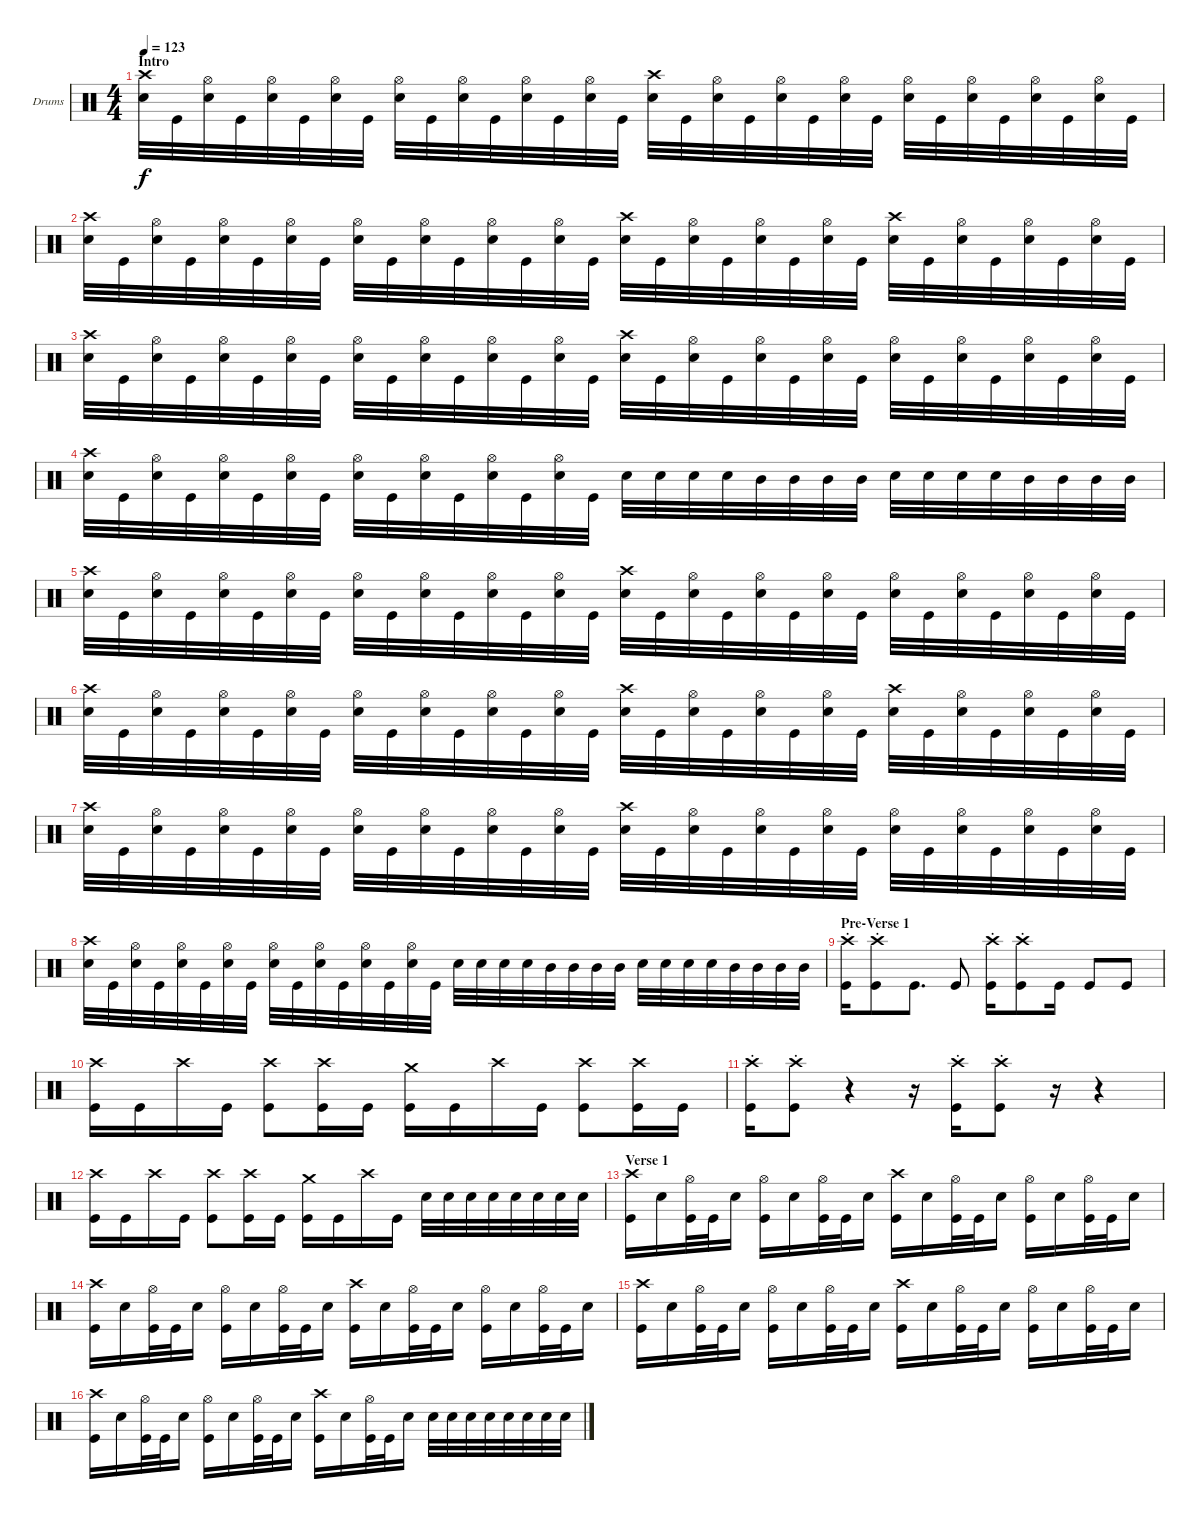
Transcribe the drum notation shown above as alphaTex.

\defaultSystemsLayout 4
\bracketExtendMode groupsimilarinstruments
\firstSystemTrackNameOrientation horizontal
\otherSystemsTrackNameOrientation horizontal
\track ("Drumkit" "Drums") {instrument percussion}
\staff {score}
\articulation defaults
\ts (4 4)
\section ("" "Intro")
\tempo 123
\clef neutral
\scale
0.472222
\ks c
("Snare (hit) 2" "Crash high (hit)").32{dy f} "Kick (hit)".32 ("Snare (hit) 2" "Hi-Hat (open)").32 "Kick (hit)".32 ("Snare (hit) 2" "Hi-Hat (open)").32 "Kick (hit)".32 ("Snare (hit) 2" "Hi-Hat (open)").32 "Kick (hit)".32 ("Snare (hit) 2" "Hi-Hat (open)").32 "Kick (hit)".32 ("Snare (hit) 2" "Hi-Hat (open)").32 "Kick (hit)".32 ("Snare (hit) 2" "Hi-Hat (open)").32 "Kick (hit)".32 ("Snare (hit) 2" "Hi-Hat (open)").32 "Kick (hit)".32 ("Snare (hit) 2" "Crash high (hit)").32 "Kick (hit)".32 ("Snare (hit) 2" "Hi-Hat (open)").32 "Kick (hit)".32 ("Snare (hit) 2" "Hi-Hat (open)").32 "Kick (hit)".32 ("Snare (hit) 2" "Hi-Hat (open)").32 "Kick (hit)".32 ("Snare (hit) 2" "Hi-Hat (open)").32 "Kick (hit)".32 ("Snare (hit) 2" "Hi-Hat (open)").32 "Kick (hit)".32 ("Snare (hit) 2" "Hi-Hat (open)").32 "Kick (hit)".32 ("Snare (hit) 2" "Hi-Hat (open)").32 "Kick (hit)".32 |
\scale
0.263889 ("Snare (hit) 2" "Crash high (hit)").32 "Kick (hit)".32 ("Snare (hit) 2" "Hi-Hat (open)").32 "Kick (hit)".32 ("Snare (hit) 2" "Hi-Hat (open)").32 "Kick (hit)".32 ("Snare (hit) 2" "Hi-Hat (open)").32 "Kick (hit)".32 ("Snare (hit) 2" "Hi-Hat (open)").32 "Kick (hit)".32 ("Snare (hit) 2" "Hi-Hat (open)").32 "Kick (hit)".32 ("Snare (hit) 2" "Hi-Hat (open)").32 "Kick (hit)".32 ("Snare (hit) 2" "Hi-Hat (open)").32 "Kick (hit)".32 ("Snare (hit) 2" "Crash high (hit)").32 "Kick (hit)".32 ("Snare (hit) 2" "Hi-Hat (open)").32 "Kick (hit)".32 ("Snare (hit) 2" "Hi-Hat (open)").32 "Kick (hit)".32 ("Snare (hit) 2" "Hi-Hat (open)").32 "Kick (hit)".32 ("Snare (hit) 2" "Crash high (hit)").32 "Kick (hit)".32 ("Snare (hit) 2" "Hi-Hat (open)").32 "Kick (hit)".32 ("Snare (hit) 2" "Hi-Hat (open)").32 "Kick (hit)".32 ("Snare (hit) 2" "Hi-Hat (open)").32 "Kick (hit)".32 |
\scale
0.263889 ("Snare (hit) 2" "Crash high (hit)").32 "Kick (hit)".32 ("Snare (hit) 2" "Hi-Hat (open)").32 "Kick (hit)".32 ("Snare (hit) 2" "Hi-Hat (open)").32 "Kick (hit)".32 ("Snare (hit) 2" "Hi-Hat (open)").32 "Kick (hit)".32 ("Snare (hit) 2" "Hi-Hat (open)").32 "Kick (hit)".32 ("Snare (hit) 2" "Hi-Hat (open)").32 "Kick (hit)".32 ("Snare (hit) 2" "Hi-Hat (open)").32 "Kick (hit)".32 ("Snare (hit) 2" "Hi-Hat (open)").32 "Kick (hit)".32 ("Snare (hit) 2" "Crash high (hit)").32 "Kick (hit)".32 ("Snare (hit) 2" "Hi-Hat (open)").32 "Kick (hit)".32 ("Snare (hit) 2" "Hi-Hat (open)").32 "Kick (hit)".32 ("Snare (hit) 2" "Hi-Hat (open)").32 "Kick (hit)".32 ("Snare (hit) 2" "Hi-Hat (open)").32 "Kick (hit)".32 ("Snare (hit) 2" "Hi-Hat (open)").32 "Kick (hit)".32 ("Snare (hit) 2" "Hi-Hat (open)").32 "Kick (hit)".32 ("Snare (hit) 2" "Hi-Hat (open)").32 "Kick (hit)".32 |
\scale
0.333333 ("Snare (hit) 2" "Crash high (hit)").32 "Kick (hit)".32 ("Snare (hit) 2" "Hi-Hat (open)").32 "Kick (hit)".32 ("Snare (hit) 2" "Hi-Hat (open)").32 "Kick (hit)".32 ("Snare (hit) 2" "Hi-Hat (open)").32 "Kick (hit)".32 ("Snare (hit) 2" "Hi-Hat (open)").32 "Kick (hit)".32 ("Snare (hit) 2" "Hi-Hat (open)").32 "Kick (hit)".32 ("Snare (hit) 2" "Hi-Hat (open)").32 "Kick (hit)".32 ("Snare (hit) 2" "Hi-Hat (open)").32 "Kick (hit)".32 "Snare (hit) 2".32 "Snare (hit) 2".32 "Snare (hit) 2".32 "Snare (hit) 2".32 "Mid Tom (hit)".32 "Mid Tom (hit)".32 "Mid Tom (hit)".32 "Mid Tom (hit)".32 "Snare (hit) 2".32 "Snare (hit) 2".32 "Snare (hit) 2".32 "Snare (hit) 2".32 "Mid Tom (hit)".32 "Mid Tom (hit)".32 "Mid Tom (hit)".32 "Mid Tom (hit)".32 |
\scale
0.333333 ("Snare (hit) 2" "Crash high (hit)").32 "Kick (hit)".32 ("Snare (hit) 2" "Hi-Hat (open)").32 "Kick (hit)".32 ("Snare (hit) 2" "Hi-Hat (open)").32 "Kick (hit)".32 ("Snare (hit) 2" "Hi-Hat (open)").32 "Kick (hit)".32 ("Snare (hit) 2" "Hi-Hat (open)").32 "Kick (hit)".32 ("Snare (hit) 2" "Hi-Hat (open)").32 "Kick (hit)".32 ("Snare (hit) 2" "Hi-Hat (open)").32 "Kick (hit)".32 ("Snare (hit) 2" "Hi-Hat (open)").32 "Kick (hit)".32 ("Snare (hit) 2" "Crash high (hit)").32 "Kick (hit)".32 ("Snare (hit) 2" "Hi-Hat (open)").32 "Kick (hit)".32 ("Snare (hit) 2" "Hi-Hat (open)").32 "Kick (hit)".32 ("Snare (hit) 2" "Hi-Hat (open)").32 "Kick (hit)".32 ("Snare (hit) 2" "Hi-Hat (open)").32 "Kick (hit)".32 ("Snare (hit) 2" "Hi-Hat (open)").32 "Kick (hit)".32 ("Snare (hit) 2" "Hi-Hat (open)").32 "Kick (hit)".32 ("Snare (hit) 2" "Hi-Hat (open)").32 "Kick (hit)".32 |
\scale
0.333333 ("Snare (hit) 2" "Crash high (hit)").32 "Kick (hit)".32 ("Snare (hit) 2" "Hi-Hat (open)").32 "Kick (hit)".32 ("Snare (hit) 2" "Hi-Hat (open)").32 "Kick (hit)".32 ("Snare (hit) 2" "Hi-Hat (open)").32 "Kick (hit)".32 ("Snare (hit) 2" "Hi-Hat (open)").32 "Kick (hit)".32 ("Snare (hit) 2" "Hi-Hat (open)").32 "Kick (hit)".32 ("Snare (hit) 2" "Hi-Hat (open)").32 "Kick (hit)".32 ("Snare (hit) 2" "Hi-Hat (open)").32 "Kick (hit)".32 ("Snare (hit) 2" "Crash high (hit)").32 "Kick (hit)".32 ("Snare (hit) 2" "Hi-Hat (open)").32 "Kick (hit)".32 ("Snare (hit) 2" "Hi-Hat (open)").32 "Kick (hit)".32 ("Snare (hit) 2" "Hi-Hat (open)").32 "Kick (hit)".32 ("Snare (hit) 2" "Crash high (hit)").32 "Kick (hit)".32 ("Snare (hit) 2" "Hi-Hat (open)").32 "Kick (hit)".32 ("Snare (hit) 2" "Hi-Hat (open)").32 "Kick (hit)".32 ("Snare (hit) 2" "Hi-Hat (open)").32 "Kick (hit)".32 |
\scale
0.333333 ("Snare (hit) 2" "Crash high (hit)").32 "Kick (hit)".32 ("Snare (hit) 2" "Hi-Hat (open)").32 "Kick (hit)".32 ("Snare (hit) 2" "Hi-Hat (open)").32 "Kick (hit)".32 ("Snare (hit) 2" "Hi-Hat (open)").32 "Kick (hit)".32 ("Snare (hit) 2" "Hi-Hat (open)").32 "Kick (hit)".32 ("Snare (hit) 2" "Hi-Hat (open)").32 "Kick (hit)".32 ("Snare (hit) 2" "Hi-Hat (open)").32 "Kick (hit)".32 ("Snare (hit) 2" "Hi-Hat (open)").32 "Kick (hit)".32 ("Snare (hit) 2" "Crash high (hit)").32 "Kick (hit)".32 ("Snare (hit) 2" "Hi-Hat (open)").32 "Kick (hit)".32 ("Snare (hit) 2" "Hi-Hat (open)").32 "Kick (hit)".32 ("Snare (hit) 2" "Hi-Hat (open)").32 "Kick (hit)".32 ("Snare (hit) 2" "Hi-Hat (open)").32 "Kick (hit)".32 ("Snare (hit) 2" "Hi-Hat (open)").32 "Kick (hit)".32 ("Snare (hit) 2" "Hi-Hat (open)").32 "Kick (hit)".32 ("Snare (hit) 2" "Hi-Hat (open)").32 "Kick (hit)".32 |
\scale
0.333333 ("Snare (hit) 2" "Crash high (hit)").32 "Kick (hit)".32 ("Snare (hit) 2" "Hi-Hat (open)").32 "Kick (hit)".32 ("Snare (hit) 2" "Hi-Hat (open)").32 "Kick (hit)".32 ("Snare (hit) 2" "Hi-Hat (open)").32 "Kick (hit)".32 ("Snare (hit) 2" "Hi-Hat (open)").32 "Kick (hit)".32 ("Snare (hit) 2" "Hi-Hat (open)").32 "Kick (hit)".32 ("Snare (hit) 2" "Hi-Hat (open)").32 "Kick (hit)".32 ("Snare (hit) 2" "Hi-Hat (open)").32 "Kick (hit)".32 "Snare (hit) 2".32 "Snare (hit) 2".32 "Snare (hit) 2".32 "Snare (hit) 2".32 "Mid Tom (hit)".32 "Mid Tom (hit)".32 "Mid Tom (hit)".32 "Mid Tom (hit)".32 "Snare (hit) 2".32 "Snare (hit) 2".32 "Snare (hit) 2".32 "Snare (hit) 2".32 "Mid Tom (hit)".32 "Mid Tom (hit)".32 "Mid Tom (hit)".32 "Mid Tom (hit)".32 |
\section ("" "Pre-Verse 1")
\scale
0.333333 ("Kick (hit)"{st} "Crash high (hit)"{st}).16 ("Kick (hit)"{st} "Crash high (hit)"{st}).8 "Kick (hit)".8{d} "Kick (hit)".8 ("Kick (hit)"{st} "Crash high (hit)"{st}).16 ("Kick (hit)"{st} "Crash high (hit)"{st}).8 "Kick (hit)".16 "Kick (hit)".8 "Kick (hit)".8 |
\scale
0.333333 ("Kick (hit)" "Crash high (hit)").16 "Kick (hit)".16 "Crash high (hit)".16 "Kick (hit)".16 ("Kick (hit)" "Crash high (hit)").8 ("Kick (hit)" "Crash high (hit)").16 "Kick (hit)".16 ("Kick (hit)" "Crash medium (hit)").16 "Kick (hit)".16 "Crash high (hit)".16 "Kick (hit)".16 ("Kick (hit)" "Crash high (hit)").8 ("Kick (hit)" "Crash high (hit)").16 "Kick (hit)".16 |
\scale
0.333333 ("Kick (hit)"{st} "Crash high (hit)"{st}).16 ("Kick (hit)"{st} "Crash high (hit)"{st}).8 r.4 r.16 ("Kick (hit)"{st} "Crash high (hit)"{st}).16 ("Kick (hit)"{st} "Crash high (hit)"{st}).8 r.16 r.4 |
\scale
0.333333 ("Kick (hit)" "Crash high (hit)").16 "Kick (hit)".16 "Crash high (hit)".16 "Kick (hit)".16 ("Kick (hit)" "Crash high (hit)").8 ("Kick (hit)" "Crash high (hit)").16 "Kick (hit)".16 ("Kick (hit)" "Crash medium (hit)").16 "Kick (hit)".16 "Crash high (hit)".16 "Kick (hit)".16 "Snare (hit) 2".32 "Snare (hit) 2".32 "Snare (hit) 2".32 "Snare (hit) 2".32 "Snare (hit) 2".32 "Snare (hit) 2".32 "Snare (hit) 2".32 "Snare (hit) 2".32 |
\section ("" "Verse 1")
\scale
0.333333 ("Kick (hit)" "Crash high (hit)").16 "Snare (hit) 2".16 ("Kick (hit)" "Hi-Hat (open)").32 "Kick (hit)".32 "Snare (hit) 2".16 ("Kick (hit)" "Hi-Hat (open)").16 "Snare (hit) 2".16 ("Kick (hit)" "Hi-Hat (open)").32 "Kick (hit)".32 "Snare (hit) 2".16 ("Kick (hit)" "Crash high (hit)").16 "Snare (hit) 2".16 ("Kick (hit)" "Hi-Hat (open)").32 "Kick (hit)".32 "Snare (hit) 2".16 ("Kick (hit)" "Hi-Hat (open)").16 "Snare (hit) 2".16 ("Kick (hit)" "Hi-Hat (open)").32 "Kick (hit)".32 "Snare (hit) 2".16 |
\scale
0.333333 ("Kick (hit)" "Crash high (hit)").16 "Snare (hit) 2".16 ("Kick (hit)" "Hi-Hat (open)").32 "Kick (hit)".32 "Snare (hit) 2".16 ("Kick (hit)" "Hi-Hat (open)").16 "Snare (hit) 2".16 ("Kick (hit)" "Hi-Hat (open)").32 "Kick (hit)".32 "Snare (hit) 2".16 ("Kick (hit)" "Crash high (hit)").16 "Snare (hit) 2".16 ("Kick (hit)" "Hi-Hat (open)").32 "Kick (hit)".32 "Snare (hit) 2".16 ("Kick (hit)" "Hi-Hat (open)").16 "Snare (hit) 2".16 ("Kick (hit)" "Hi-Hat (open)").32 "Kick (hit)".32 "Snare (hit) 2".16 |
\scale
0.333333 ("Kick (hit)" "Crash high (hit)").16 "Snare (hit) 2".16 ("Kick (hit)" "Hi-Hat (open)").32 "Kick (hit)".32 "Snare (hit) 2".16 ("Kick (hit)" "Hi-Hat (open)").16 "Snare (hit) 2".16 ("Kick (hit)" "Hi-Hat (open)").32 "Kick (hit)".32 "Snare (hit) 2".16 ("Kick (hit)" "Crash high (hit)").16 "Snare (hit) 2".16 ("Kick (hit)" "Hi-Hat (open)").32 "Kick (hit)".32 "Snare (hit) 2".16 ("Kick (hit)" "Hi-Hat (open)").16 "Snare (hit) 2".16 ("Kick (hit)" "Hi-Hat (open)").32 "Kick (hit)".32 "Snare (hit) 2".16 |
\scale
0.333333 ("Kick (hit)" "Crash high (hit)").16 "Snare (hit) 2".16 ("Kick (hit)" "Hi-Hat (open)").32 "Kick (hit)".32 "Snare (hit) 2".16 ("Kick (hit)" "Hi-Hat (open)").16 "Snare (hit) 2".16 ("Kick (hit)" "Hi-Hat (open)").32 "Kick (hit)".32 "Snare (hit) 2".16 ("Kick (hit)" "Crash high (hit)").16 "Snare (hit) 2".16 ("Kick (hit)" "Hi-Hat (open)").32 "Kick (hit)".32 "Snare (hit) 2".16 "Snare (hit) 2".32 "Snare (hit) 2".32 "Snare (hit) 2".32 "Snare (hit) 2".32 "Snare (hit) 2".32 "Snare (hit) 2".32 "Snare (hit) 2".32 "Snare (hit) 2".32
